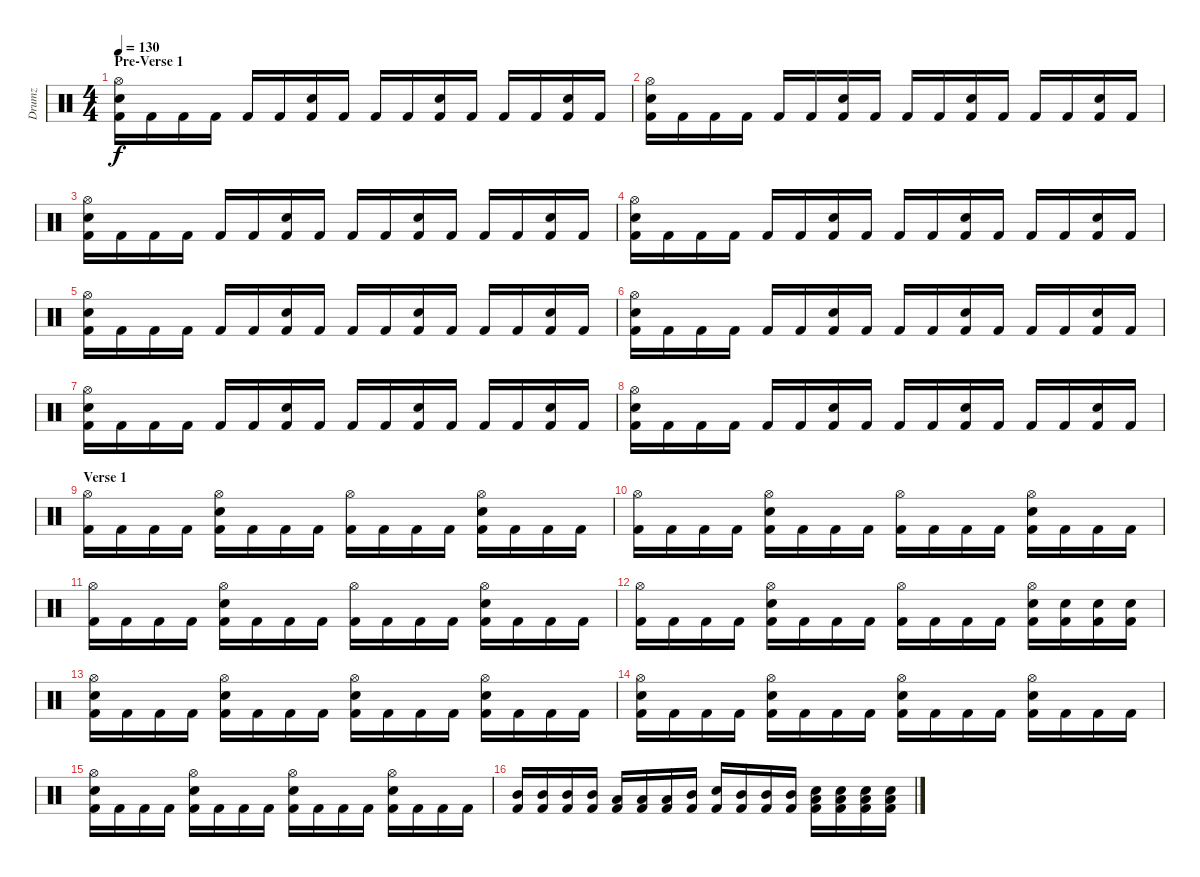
\track ("Drumz" "Drumz") {instrument percussion}
\staff {score}
\articulation defaults
\ts (4 4)
\section ("" "Pre-Verse 1")
\tempo 130
\clef neutral
\ks c
("Hi-Hat (open)" "Snare (hit) 2" "Kick (hit) 2").16{dy f} "Kick (hit) 2".16 "Kick (hit) 2".16 "Kick (hit) 2".16 "Kick (hit) 2".16 "Kick (hit) 2".16 ("Snare (hit) 2" "Kick (hit) 2").16 "Kick (hit) 2".16 "Kick (hit) 2".16 "Kick (hit) 2".16 ("Snare (hit) 2" "Kick (hit) 2").16 "Kick (hit) 2".16 "Kick (hit) 2".16 "Kick (hit) 2".16 ("Snare (hit) 2" "Kick (hit) 2").16 "Kick (hit) 2".16 |
("Hi-Hat (open)" "Snare (hit) 2" "Kick (hit) 2").16 "Kick (hit) 2".16 "Kick (hit) 2".16 "Kick (hit) 2".16 "Kick (hit) 2".16 "Kick (hit) 2".16 ("Snare (hit) 2" "Kick (hit) 2").16 "Kick (hit) 2".16 "Kick (hit) 2".16 "Kick (hit) 2".16 ("Snare (hit) 2" "Kick (hit) 2").16 "Kick (hit) 2".16 "Kick (hit) 2".16 "Kick (hit) 2".16 ("Snare (hit) 2" "Kick (hit) 2").16 "Kick (hit) 2".16 |
("Hi-Hat (open)" "Snare (hit) 2" "Kick (hit) 2").16 "Kick (hit) 2".16 "Kick (hit) 2".16 "Kick (hit) 2".16 "Kick (hit) 2".16 "Kick (hit) 2".16 ("Snare (hit) 2" "Kick (hit) 2").16 "Kick (hit) 2".16 "Kick (hit) 2".16 "Kick (hit) 2".16 ("Snare (hit) 2" "Kick (hit) 2").16 "Kick (hit) 2".16 "Kick (hit) 2".16 "Kick (hit) 2".16 ("Snare (hit) 2" "Kick (hit) 2").16 "Kick (hit) 2".16 |
("Hi-Hat (open)" "Snare (hit) 2" "Kick (hit) 2").16 "Kick (hit) 2".16 "Kick (hit) 2".16 "Kick (hit) 2".16 "Kick (hit) 2".16 "Kick (hit) 2".16 ("Snare (hit) 2" "Kick (hit) 2").16 "Kick (hit) 2".16 "Kick (hit) 2".16 "Kick (hit) 2".16 ("Snare (hit) 2" "Kick (hit) 2").16 "Kick (hit) 2".16 "Kick (hit) 2".16 "Kick (hit) 2".16 ("Snare (hit) 2" "Kick (hit) 2").16 "Kick (hit) 2".16 |
("Hi-Hat (open)" "Snare (hit) 2" "Kick (hit) 2").16 "Kick (hit) 2".16 "Kick (hit) 2".16 "Kick (hit) 2".16 "Kick (hit) 2".16 "Kick (hit) 2".16 ("Snare (hit) 2" "Kick (hit) 2").16 "Kick (hit) 2".16 "Kick (hit) 2".16 "Kick (hit) 2".16 ("Snare (hit) 2" "Kick (hit) 2").16 "Kick (hit) 2".16 "Kick (hit) 2".16 "Kick (hit) 2".16 ("Snare (hit) 2" "Kick (hit) 2").16 "Kick (hit) 2".16 |
("Hi-Hat (open)" "Snare (hit) 2" "Kick (hit) 2").16 "Kick (hit) 2".16 "Kick (hit) 2".16 "Kick (hit) 2".16 "Kick (hit) 2".16 "Kick (hit) 2".16 ("Snare (hit) 2" "Kick (hit) 2").16 "Kick (hit) 2".16 "Kick (hit) 2".16 "Kick (hit) 2".16 ("Snare (hit) 2" "Kick (hit) 2").16 "Kick (hit) 2".16 "Kick (hit) 2".16 "Kick (hit) 2".16 ("Snare (hit) 2" "Kick (hit) 2").16 "Kick (hit) 2".16 |
("Hi-Hat (open)" "Snare (hit) 2" "Kick (hit) 2").16 "Kick (hit) 2".16 "Kick (hit) 2".16 "Kick (hit) 2".16 "Kick (hit) 2".16 "Kick (hit) 2".16 ("Snare (hit) 2" "Kick (hit) 2").16 "Kick (hit) 2".16 "Kick (hit) 2".16 "Kick (hit) 2".16 ("Snare (hit) 2" "Kick (hit) 2").16 "Kick (hit) 2".16 "Kick (hit) 2".16 "Kick (hit) 2".16 ("Snare (hit) 2" "Kick (hit) 2").16 "Kick (hit) 2".16 |
("Hi-Hat (open)" "Snare (hit) 2" "Kick (hit) 2").16 "Kick (hit) 2".16 "Kick (hit) 2".16 "Kick (hit) 2".16 "Kick (hit) 2".16 "Kick (hit) 2".16 ("Snare (hit) 2" "Kick (hit) 2").16 "Kick (hit) 2".16 "Kick (hit) 2".16 "Kick (hit) 2".16 ("Snare (hit) 2" "Kick (hit) 2").16 "Kick (hit) 2".16 "Kick (hit) 2".16 "Kick (hit) 2".16 ("Snare (hit) 2" "Kick (hit) 2").16 "Kick (hit) 2".16 |
\section ("" "Verse 1")
("Hi-Hat (open)" "Kick (hit) 2").16 "Kick (hit) 2".16 "Kick (hit) 2".16 "Kick (hit) 2".16 ("Hi-Hat (open)" "Snare (hit) 2" "Kick (hit) 2").16 "Kick (hit) 2".16 "Kick (hit) 2".16 "Kick (hit) 2".16 ("Hi-Hat (open)" "Kick (hit) 2").16 "Kick (hit) 2".16 "Kick (hit) 2".16 "Kick (hit) 2".16 ("Hi-Hat (open)" "Snare (hit) 2" "Kick (hit) 2").16 "Kick (hit) 2".16 "Kick (hit) 2".16 "Kick (hit) 2".16 |
("Hi-Hat (open)" "Kick (hit) 2").16 "Kick (hit) 2".16 "Kick (hit) 2".16 "Kick (hit) 2".16 ("Hi-Hat (open)" "Snare (hit) 2" "Kick (hit) 2").16 "Kick (hit) 2".16 "Kick (hit) 2".16 "Kick (hit) 2".16 ("Hi-Hat (open)" "Kick (hit) 2").16 "Kick (hit) 2".16 "Kick (hit) 2".16 "Kick (hit) 2".16 ("Hi-Hat (open)" "Snare (hit) 2" "Kick (hit) 2").16 "Kick (hit) 2".16 "Kick (hit) 2".16 "Kick (hit) 2".16 |
("Hi-Hat (open)" "Kick (hit) 2").16 "Kick (hit) 2".16 "Kick (hit) 2".16 "Kick (hit) 2".16 ("Hi-Hat (open)" "Snare (hit) 2" "Kick (hit) 2").16 "Kick (hit) 2".16 "Kick (hit) 2".16 "Kick (hit) 2".16 ("Hi-Hat (open)" "Kick (hit) 2").16 "Kick (hit) 2".16 "Kick (hit) 2".16 "Kick (hit) 2".16 ("Hi-Hat (open)" "Snare (hit) 2" "Kick (hit) 2").16 "Kick (hit) 2".16 "Kick (hit) 2".16 "Kick (hit) 2".16 |
("Hi-Hat (open)" "Kick (hit) 2").16 "Kick (hit) 2".16 "Kick (hit) 2".16 "Kick (hit) 2".16 ("Hi-Hat (open)" "Snare (hit) 2" "Kick (hit) 2").16 "Kick (hit) 2".16 "Kick (hit) 2".16 "Kick (hit) 2".16 ("Hi-Hat (open)" "Kick (hit) 2").16 "Kick (hit) 2".16 "Kick (hit) 2".16 "Kick (hit) 2".16 ("Hi-Hat (open)" "Snare (hit) 2" "Kick (hit) 2").16 ("Snare (hit) 2" "Kick (hit) 2").16 ("Snare (hit) 2" "Kick (hit) 2").16 ("Snare (hit) 2" "Kick (hit) 2").16 |
("Hi-Hat (open)" "Snare (hit) 2" "Kick (hit) 2").16 "Kick (hit) 2".16 "Kick (hit) 2".16 "Kick (hit) 2".16 ("Hi-Hat (open)" "Snare (hit) 2" "Kick (hit) 2").16 "Kick (hit) 2".16 "Kick (hit) 2".16 "Kick (hit) 2".16 ("Hi-Hat (open)" "Snare (hit) 2" "Kick (hit) 2").16 "Kick (hit) 2".16 "Kick (hit) 2".16 "Kick (hit) 2".16 ("Hi-Hat (open)" "Snare (hit) 2" "Kick (hit) 2").16 "Kick (hit) 2".16 "Kick (hit) 2".16 "Kick (hit) 2".16 |
("Hi-Hat (open)" "Snare (hit) 2" "Kick (hit) 2").16 "Kick (hit) 2".16 "Kick (hit) 2".16 "Kick (hit) 2".16 ("Hi-Hat (open)" "Snare (hit) 2" "Kick (hit) 2").16 "Kick (hit) 2".16 "Kick (hit) 2".16 "Kick (hit) 2".16 ("Hi-Hat (open)" "Snare (hit) 2" "Kick (hit) 2").16 "Kick (hit) 2".16 "Kick (hit) 2".16 "Kick (hit) 2".16 ("Hi-Hat (open)" "Snare (hit) 2" "Kick (hit) 2").16 "Kick (hit) 2".16 "Kick (hit) 2".16 "Kick (hit) 2".16 |
("Hi-Hat (open)" "Snare (hit) 2" "Kick (hit) 2").16 "Kick (hit) 2".16 "Kick (hit) 2".16 "Kick (hit) 2".16 ("Hi-Hat (open)" "Snare (hit) 2" "Kick (hit) 2").16 "Kick (hit) 2".16 "Kick (hit) 2".16 "Kick (hit) 2".16 ("Hi-Hat (open)" "Snare (hit) 2" "Kick (hit) 2").16 "Kick (hit) 2".16 "Kick (hit) 2".16 "Kick (hit) 2".16 ("Hi-Hat (open)" "Snare (hit) 2" "Kick (hit) 2").16 "Kick (hit) 2".16 "Kick (hit) 2".16 "Kick (hit) 2".16 |
("Mid Tom (hit)" "Kick (hit) 2").16 ("Mid Tom (hit)" "Kick (hit) 2").16 ("Mid Tom (hit)" "Kick (hit) 2").16 ("Mid Tom (hit)" "Kick (hit) 2").16 ("Low Tom (hit)" "Kick (hit) 2").16 ("Low Tom (hit)" "Kick (hit) 2").16 ("Low Tom (hit)" "Kick (hit) 2").16 ("Mid Tom (hit)" "Kick (hit) 2").16 ("Snare (hit) 2" "Kick (hit) 2").16 ("Mid Tom (hit)" "Kick (hit) 2").16 ("Mid Tom (hit)" "Kick (hit) 2").16 ("Mid Tom (hit)" "Kick (hit) 2").16 ("Low Tom (hit)" "Snare (hit) 2" "Kick (hit) 2").16 ("Low Tom (hit)" "Snare (hit) 2" "Kick (hit) 2").16 ("Low Tom (hit)" "Snare (hit) 2" "Kick (hit) 2").16 ("Low Tom (hit)" "Snare (hit) 2" "Kick (hit) 2").16
